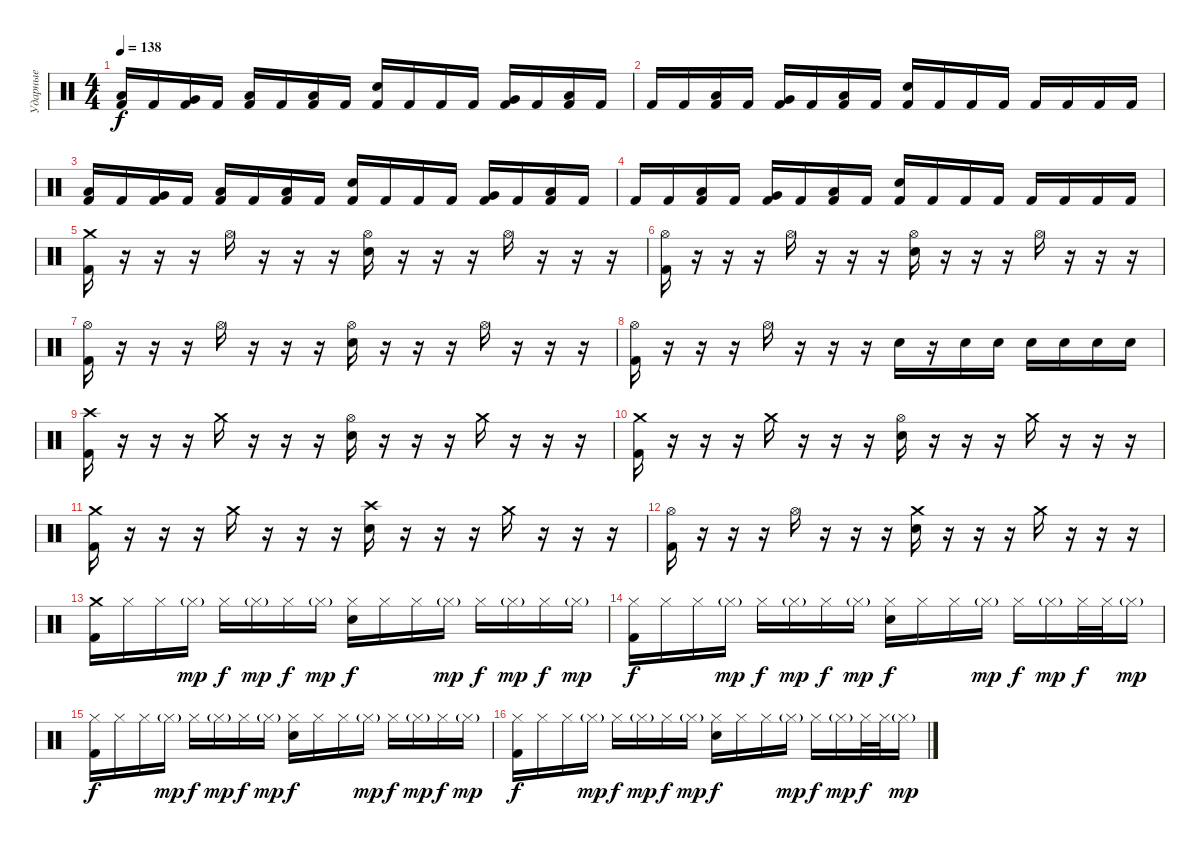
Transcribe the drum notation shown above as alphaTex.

\track ("Ударные" "Ударные") {instrument percussion}
\staff {score}
\articulation defaults
\ts (4 4)
\tempo 138
\clef neutral
\ks c
("Low Tom (hit)" "Kick (hit) 2").16{dy f} "Kick (hit) 2".16 ("Very Low Tom (hit)" "Kick (hit) 2").16 "Kick (hit) 2".16 ("Low Floor Tom (hit)" "Kick (hit) 2").16 "Kick (hit) 2".16 ("Low Floor Tom (hit)" "Kick (hit) 2").16 "Kick (hit) 2".16 ("Snare (hit) 2" "Kick (hit) 2").16 "Kick (hit) 2".16 "Kick (hit) 2".16 "Kick (hit) 2".16 ("Very Low Tom (hit)" "Kick (hit) 2").16 "Kick (hit) 2".16 ("Low Tom (hit)" "Kick (hit) 2").16 "Kick (hit) 2".16 |
"Kick (hit) 2".16 "Kick (hit) 2".16 ("Low Tom (hit)" "Kick (hit) 2").16 "Kick (hit) 2".16 ("Very Low Tom (hit)" "Kick (hit) 2").16 "Kick (hit) 2".16 ("Low Floor Tom (hit)" "Kick (hit) 2").16 "Kick (hit) 2".16 ("Snare (hit) 2" "Kick (hit) 2").16 "Kick (hit) 2".16 "Kick (hit) 2".16 "Kick (hit) 2".16 "Kick (hit) 2".16 "Kick (hit) 2".16 "Kick (hit) 2".16 "Kick (hit) 2".16 |
("Low Tom (hit)" "Kick (hit) 2").16 "Kick (hit) 2".16 ("Very Low Tom (hit)" "Kick (hit) 2").16 "Kick (hit) 2".16 ("Low Floor Tom (hit)" "Kick (hit) 2").16 "Kick (hit) 2".16 ("Low Floor Tom (hit)" "Kick (hit) 2").16 "Kick (hit) 2".16 ("Snare (hit) 2" "Kick (hit) 2").16 "Kick (hit) 2".16 "Kick (hit) 2".16 "Kick (hit) 2".16 ("Very Low Tom (hit)" "Kick (hit) 2").16 "Kick (hit) 2".16 ("Low Tom (hit)" "Kick (hit) 2").16 "Kick (hit) 2".16 |
"Kick (hit) 2".16 "Kick (hit) 2".16 ("Low Tom (hit)" "Kick (hit) 2").16 "Kick (hit) 2".16 ("Very Low Tom (hit)" "Kick (hit) 2").16 "Kick (hit) 2".16 ("Low Floor Tom (hit)" "Kick (hit) 2").16 "Kick (hit) 2".16 ("Snare (hit) 2" "Kick (hit) 2").16 "Kick (hit) 2".16 "Kick (hit) 2".16 "Kick (hit) 2".16 "Kick (hit) 2".16 "Kick (hit) 2".16 "Kick (hit) 2".16 "Kick (hit) 2".16 |
("Crash medium (hit)" "Kick (hit) 2").16 r.16 r.16 r.16 "Hi-Hat (open)".16 r.16 r.16 r.16 ("Hi-Hat (open)" "Snare (hit) 2").16 r.16 r.16 r.16 "Hi-Hat (open)".16 r.16 r.16 r.16 |
("Hi-Hat (open)" "Kick (hit) 2").16 r.16 r.16 r.16 "Hi-Hat (open)".16 r.16 r.16 r.16 ("Hi-Hat (open)" "Snare (hit) 2").16 r.16 r.16 r.16 "Hi-Hat (open)".16 r.16 r.16 r.16 |
("Hi-Hat (open)" "Kick (hit) 2").16 r.16 r.16 r.16 "Hi-Hat (open)".16 r.16 r.16 r.16 ("Hi-Hat (open)" "Snare (hit) 2").16 r.16 r.16 r.16 "Hi-Hat (open)".16 r.16 r.16 r.16 |
("Hi-Hat (open)" "Kick (hit) 2").16 r.16 r.16 r.16 "Hi-Hat (open)".16 r.16 r.16 r.16 "Snare (hit) 2".16 r.16 "Snare (hit) 2".16 "Snare (hit) 2".16 "Snare (hit) 2".16 "Snare (hit) 2".16 "Snare (hit) 2".16 "Snare (hit) 2".16 |
("Crash high (hit)" "Kick (hit) 2").16 r.16 r.16 r.16 "Crash medium (hit)".16 r.16 r.16 r.16 ("Hi-Hat (open)" "Snare (hit) 2").16 r.16 r.16 r.16 "Crash medium (hit)".16 r.16 r.16 r.16 |
("Crash medium (hit)" "Kick (hit) 2").16 r.16 r.16 r.16 "Crash medium (hit)".16 r.16 r.16 r.16 ("Hi-Hat (open)" "Snare (hit) 2").16 r.16 r.16 r.16 "Crash medium (hit)".16 r.16 r.16 r.16 |
("Crash medium (hit)" "Kick (hit) 2").16 r.16 r.16 r.16 "Crash medium (hit)".16 r.16 r.16 r.16 ("Crash high (hit)" "Snare (hit) 2").16 r.16 r.16 r.16 "Crash medium (hit)".16 r.16 r.16 r.16 |
("Hi-Hat (open)" "Kick (hit) 2").16 r.16 r.16 r.16 "Hi-Hat (open)".16 r.16 r.16 r.16 ("Crash medium (hit)" "Snare (hit) 2").16 r.16 r.16 r.16 "Crash medium (hit)".16 r.16 r.16 r.16 |
("Crash medium (hit)" "Kick (hit) 2").16 "Hi-Hat (closed)".16 "Hi-Hat (closed)".16 "Hi-Hat (closed)"{g}.16{dy mp} "Hi-Hat (closed)".16{dy f} "Hi-Hat (closed)"{g}.16{dy mp} "Hi-Hat (closed)".16{dy f} "Hi-Hat (closed)"{g}.16{dy mp} ("Hi-Hat (closed)" "Snare (hit) 2").16{dy f} "Hi-Hat (closed)".16 "Hi-Hat (closed)".16 "Hi-Hat (closed)"{g}.16{dy mp} "Hi-Hat (closed)".16{dy f} "Hi-Hat (closed)"{g}.16{dy mp} "Hi-Hat (closed)".16{dy f} "Hi-Hat (closed)"{g}.16{dy mp} |
("Hi-Hat (closed)" "Kick (hit) 2").16{dy f} "Hi-Hat (closed)".16 "Hi-Hat (closed)".16 "Hi-Hat (closed)"{g}.16{dy mp} "Hi-Hat (closed)".16{dy f} "Hi-Hat (closed)"{g}.16{dy mp} "Hi-Hat (closed)".16{dy f} "Hi-Hat (closed)"{g}.16{dy mp} ("Hi-Hat (closed)" "Snare (hit) 2").16{dy f} "Hi-Hat (closed)".16 "Hi-Hat (closed)".16 "Hi-Hat (closed)"{g}.16{dy mp} "Hi-Hat (closed)".16{dy f} "Hi-Hat (closed)"{g}.16{dy mp} "Hi-Hat (closed)".32{dy f} "Hi-Hat (closed)".32 "Hi-Hat (closed)"{g}.16{dy mp} |
("Hi-Hat (closed)" "Kick (hit) 2").16{dy f} "Hi-Hat (closed)".16 "Hi-Hat (closed)".16 "Hi-Hat (closed)"{g}.16{dy mp} "Hi-Hat (closed)".16{dy f} "Hi-Hat (closed)"{g}.16{dy mp} "Hi-Hat (closed)".16{dy f} "Hi-Hat (closed)"{g}.16{dy mp} ("Hi-Hat (closed)" "Snare (hit) 2").16{dy f} "Hi-Hat (closed)".16 "Hi-Hat (closed)".16 "Hi-Hat (closed)"{g}.16{dy mp} "Hi-Hat (closed)".16{dy f} "Hi-Hat (closed)"{g}.16{dy mp} "Hi-Hat (closed)".16{dy f} "Hi-Hat (closed)"{g}.16{dy mp} |
("Hi-Hat (closed)" "Kick (hit) 2").16{dy f} "Hi-Hat (closed)".16 "Hi-Hat (closed)".16 "Hi-Hat (closed)"{g}.16{dy mp} "Hi-Hat (closed)".16{dy f} "Hi-Hat (closed)"{g}.16{dy mp} "Hi-Hat (closed)".16{dy f} "Hi-Hat (closed)"{g}.16{dy mp} ("Hi-Hat (closed)" "Snare (hit) 2").16{dy f} "Hi-Hat (closed)".16 "Hi-Hat (closed)".16 "Hi-Hat (closed)"{g}.16{dy mp} "Hi-Hat (closed)".16{dy f} "Hi-Hat (closed)"{g}.16{dy mp} "Hi-Hat (closed)".32{dy f} "Hi-Hat (closed)".32 "Hi-Hat (closed)"{g}.16{dy mp}
